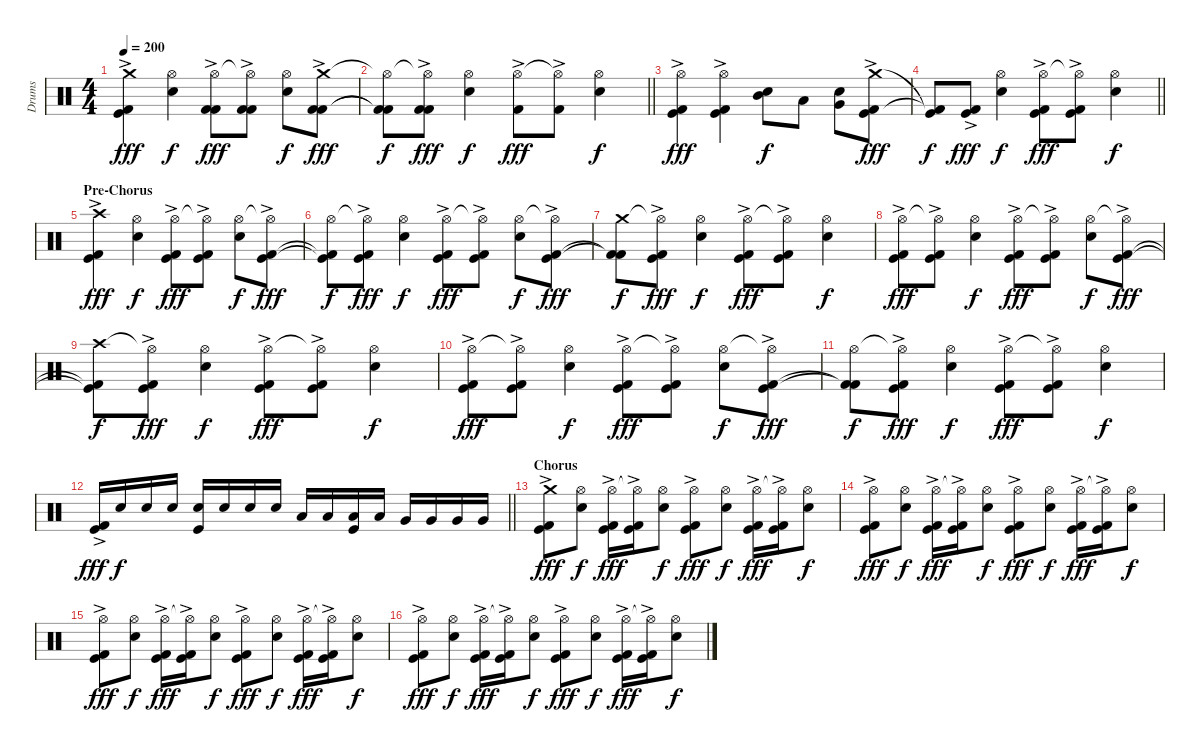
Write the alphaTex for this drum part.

\track ("Drums" "Drums") {instrument percussion}
\staff {score}
\articulation defaults
\ts (4 4)
\tempo 200
\clef neutral
\ks c
("Crash medium (hit)" "Kick (hit)" "Kick (hit) 2"{ac}).4{dy fff} ("Hi-Hat (open)" "Electric Snare (hit)").4{dy f} ("Hi-Hat (open)" "Kick (hit) 2" "Kick (hit) 2"{ac}).8{dy fff} ("Hi-Hat (open)"{t} "Kick (hit) 2" "Kick (hit) 2"{ac}).8 ("Hi-Hat (open)" "Electric Snare (hit)").8{dy f} ("Crash medium (hit)" "Kick (hit) 2" "Kick (hit) 2"{ac}).8{dy fff} |
\barLineRight lightlight
("Hi-Hat (open)"{t} "Kick (hit) 2"{t} "Kick (hit) 2"{t}).8{dy f} ("Hi-Hat (open)"{t} "Kick (hit) 2" "Kick (hit) 2"{ac}).8{dy fff} ("Hi-Hat (open)" "Electric Snare (hit)").4{dy f} ("Hi-Hat (open)" "Kick (hit) 2"{ac}).8{dy fff} ("Hi-Hat (open)"{t} "Kick (hit) 2"{ac}).8 ("Hi-Hat (open)" "Electric Snare (hit)").4{dy f} |
("Hi-Hat (open)" "Kick (hit)" "Kick (hit) 2"{ac}).4{dy fff} ("Hi-Hat (open)" "Kick (hit)" "Kick (hit) 2"{ac}).4 ("Mid Tom (hit)" "Snare (hit) 2").8{dy f} "Low Tom (hit)".8 ("Very Low Tom (hit)" "Snare (hit) 2").8 ("Crash medium (hit)" "Kick (hit)" "Kick (hit) 2"{ac}).8{dy fff} |
\barLineRight lightlight
("Kick (hit)"{t} "Kick (hit) 2"{t}).8{dy f} ("Kick (hit)" "Kick (hit) 2"{ac}).8{dy fff} ("Hi-Hat (open)" "Electric Snare (hit)").4{dy f} ("Hi-Hat (open)" "Kick (hit)" "Kick (hit) 2"{ac}).8{dy fff} ("Hi-Hat (open)"{t} "Kick (hit)" "Kick (hit) 2"{ac}).8 ("Hi-Hat (open)" "Electric Snare (hit)").4{dy f} |
\section ("" "Pre-Chorus")
("Crash high (hit)" "Kick (hit)" "Kick (hit) 2"{ac}).4{dy fff} ("Hi-Hat (open)" "Electric Snare (hit)").4{dy f} ("Hi-Hat (open)" "Kick (hit)" "Kick (hit) 2"{ac}).8{dy fff} ("Hi-Hat (open)"{t} "Kick (hit)" "Kick (hit) 2"{ac}).8 ("Hi-Hat (open)" "Electric Snare (hit)").8{dy f} ("Hi-Hat (open)"{t} "Kick (hit)" "Kick (hit) 2"{ac}).8{dy fff} |
("Hi-Hat (open)" "Kick (hit)"{t} "Kick (hit) 2"{t}).8{dy f} ("Hi-Hat (open)"{t} "Kick (hit)" "Kick (hit) 2"{ac}).8{dy fff} ("Hi-Hat (open)" "Electric Snare (hit)").4{dy f} ("Hi-Hat (open)" "Kick (hit)" "Kick (hit) 2"{ac}).8{dy fff} ("Hi-Hat (open)"{t} "Kick (hit)" "Kick (hit) 2"{ac}).8 ("Hi-Hat (open)" "Electric Snare (hit)").8{dy f} ("Hi-Hat (open)"{t} "Kick (hit)" "Kick (hit) 2"{ac}).8{dy fff} |
("Crash medium (hit)" "Kick (hit) 2"{t} "Kick (hit) 2"{t}).8{dy f} ("Hi-Hat (open)"{t} "Kick (hit)" "Kick (hit) 2"{ac}).8{dy fff} ("Hi-Hat (open)" "Electric Snare (hit)").4{dy f} ("Hi-Hat (open)" "Kick (hit)" "Kick (hit) 2"{ac}).8{dy fff} ("Hi-Hat (open)"{t} "Kick (hit)" "Kick (hit) 2"{ac}).8 ("Hi-Hat (open)" "Electric Snare (hit)").4{dy f} |
("Hi-Hat (open)" "Kick (hit)" "Kick (hit) 2"{ac}).8{dy fff} ("Hi-Hat (open)"{t} "Kick (hit)" "Kick (hit) 2"{ac}).8 ("Hi-Hat (open)" "Electric Snare (hit)").4{dy f} ("Hi-Hat (open)" "Kick (hit)" "Kick (hit) 2"{ac}).8{dy fff} ("Hi-Hat (open)"{t} "Kick (hit)" "Kick (hit) 2"{ac}).8 ("Hi-Hat (open)" "Electric Snare (hit)").8{dy f} ("Hi-Hat (open)"{t} "Kick (hit)" "Kick (hit) 2"{ac}).8{dy fff} |
("Crash high (hit)" "Kick (hit)"{t} "Kick (hit) 2"{t}).8{dy f} ("Hi-Hat (open)"{t} "Kick (hit)" "Kick (hit) 2"{ac}).8{dy fff} ("Hi-Hat (open)" "Electric Snare (hit)").4{dy f} ("Hi-Hat (open)" "Kick (hit)" "Kick (hit) 2"{ac}).8{dy fff} ("Hi-Hat (open)"{t} "Kick (hit)" "Kick (hit) 2"{ac}).8 ("Hi-Hat (open)" "Electric Snare (hit)").4{dy f} |
("Hi-Hat (open)" "Kick (hit)" "Kick (hit) 2"{ac}).8{dy fff} ("Hi-Hat (open)"{t} "Kick (hit)" "Kick (hit) 2"{ac}).8 ("Hi-Hat (open)" "Electric Snare (hit)").4{dy f} ("Hi-Hat (open)" "Kick (hit)" "Kick (hit) 2"{ac}).8{dy fff} ("Hi-Hat (open)"{t} "Kick (hit)" "Kick (hit) 2"{ac}).8 ("Hi-Hat (open)" "Electric Snare (hit)").8{dy f} ("Hi-Hat (open)"{t} "Kick (hit)" "Kick (hit) 2"{ac}).8{dy fff} |
("Hi-Hat (open)" "Kick (hit) 2"{t} "Kick (hit) 2"{t}).8{dy f} ("Hi-Hat (open)"{t} "Kick (hit)" "Kick (hit) 2"{ac}).8{dy fff} ("Hi-Hat (open)" "Electric Snare (hit)").4{dy f} ("Hi-Hat (open)" "Kick (hit)" "Kick (hit) 2"{ac}).8{dy fff} ("Hi-Hat (open)"{t} "Kick (hit)" "Kick (hit) 2"{ac}).8 ("Hi-Hat (open)" "Electric Snare (hit)").4{dy f} |
\barLineRight lightlight
("Kick (hit)" "Kick (hit) 2"{ac}).16{dy fff} "Electric Snare (hit)".16{dy f} "Electric Snare (hit)".16 "Electric Snare (hit)".16 ("Electric Snare (hit)" "Kick (hit)").16 "Electric Snare (hit)".16 "Electric Snare (hit)".16 "Electric Snare (hit)".16 "Low Tom (hit)".16 "Low Tom (hit)".16 ("Low Tom (hit)" "Kick (hit)").16 "Low Tom (hit)".16 "Very Low Tom (hit)".16 "Very Low Tom (hit)".16 "Very Low Tom (hit)".16 "Very Low Tom (hit)".16 |
\section ("" "Chorus")
("Crash medium (hit)" "Kick (hit)" "Kick (hit) 2"{ac}).8{dy fff} ("Hi-Hat (open)" "Electric Snare (hit)").8{dy f} ("Hi-Hat (open)" "Kick (hit)" "Kick (hit) 2"{ac}).16{dy fff} ("Hi-Hat (open)"{t} "Kick (hit)" "Kick (hit) 2"{ac}).16 ("Hi-Hat (open)" "Electric Snare (hit)").8{dy f} ("Hi-Hat (open)" "Kick (hit)" "Kick (hit) 2"{ac}).8{dy fff} ("Hi-Hat (open)" "Electric Snare (hit)").8{dy f} ("Hi-Hat (open)" "Kick (hit)" "Kick (hit) 2"{ac}).16{dy fff} ("Hi-Hat (open)"{t} "Kick (hit)" "Kick (hit) 2"{ac}).16 ("Hi-Hat (open)" "Electric Snare (hit)").8{dy f} |
("Hi-Hat (open)" "Kick (hit)" "Kick (hit) 2"{ac}).8{dy fff} ("Hi-Hat (open)" "Electric Snare (hit)").8{dy f} ("Hi-Hat (open)" "Kick (hit)" "Kick (hit) 2"{ac}).16{dy fff} ("Hi-Hat (open)"{t} "Kick (hit)" "Kick (hit) 2"{ac}).16 ("Hi-Hat (open)" "Electric Snare (hit)").8{dy f} ("Hi-Hat (open)" "Kick (hit)" "Kick (hit) 2"{ac}).8{dy fff} ("Hi-Hat (open)" "Electric Snare (hit)").8{dy f} ("Hi-Hat (open)" "Kick (hit)" "Kick (hit) 2"{ac}).16{dy fff} ("Hi-Hat (open)"{t} "Kick (hit)" "Kick (hit) 2"{ac}).16 ("Hi-Hat (open)" "Electric Snare (hit)").8{dy f} |
("Hi-Hat (open)" "Kick (hit)" "Kick (hit) 2"{ac}).8{dy fff} ("Hi-Hat (open)" "Electric Snare (hit)").8{dy f} ("Hi-Hat (open)" "Kick (hit)" "Kick (hit) 2"{ac}).16{dy fff} ("Hi-Hat (open)"{t} "Kick (hit)" "Kick (hit) 2"{ac}).16 ("Hi-Hat (open)" "Electric Snare (hit)").8{dy f} ("Hi-Hat (open)" "Kick (hit)" "Kick (hit) 2"{ac}).8{dy fff} ("Hi-Hat (open)" "Electric Snare (hit)").8{dy f} ("Hi-Hat (open)" "Kick (hit)" "Kick (hit) 2"{ac}).16{dy fff} ("Hi-Hat (open)"{t} "Kick (hit)" "Kick (hit) 2"{ac}).16 ("Hi-Hat (open)" "Electric Snare (hit)").8{dy f} |
("Hi-Hat (open)" "Kick (hit)" "Kick (hit) 2"{ac}).8{dy fff} ("Hi-Hat (open)" "Electric Snare (hit)").8{dy f} ("Hi-Hat (open)" "Kick (hit)" "Kick (hit) 2"{ac}).16{dy fff} ("Hi-Hat (open)"{t} "Kick (hit)" "Kick (hit) 2"{ac}).16 ("Hi-Hat (open)" "Electric Snare (hit)").8{dy f} ("Hi-Hat (open)" "Kick (hit)" "Kick (hit) 2"{ac}).8{dy fff} ("Hi-Hat (open)" "Electric Snare (hit)").8{dy f} ("Hi-Hat (open)" "Kick (hit)" "Kick (hit) 2"{ac}).16{dy fff} ("Hi-Hat (open)"{t} "Kick (hit)" "Kick (hit) 2"{ac}).16 ("Hi-Hat (open)" "Electric Snare (hit)").8{dy f}
